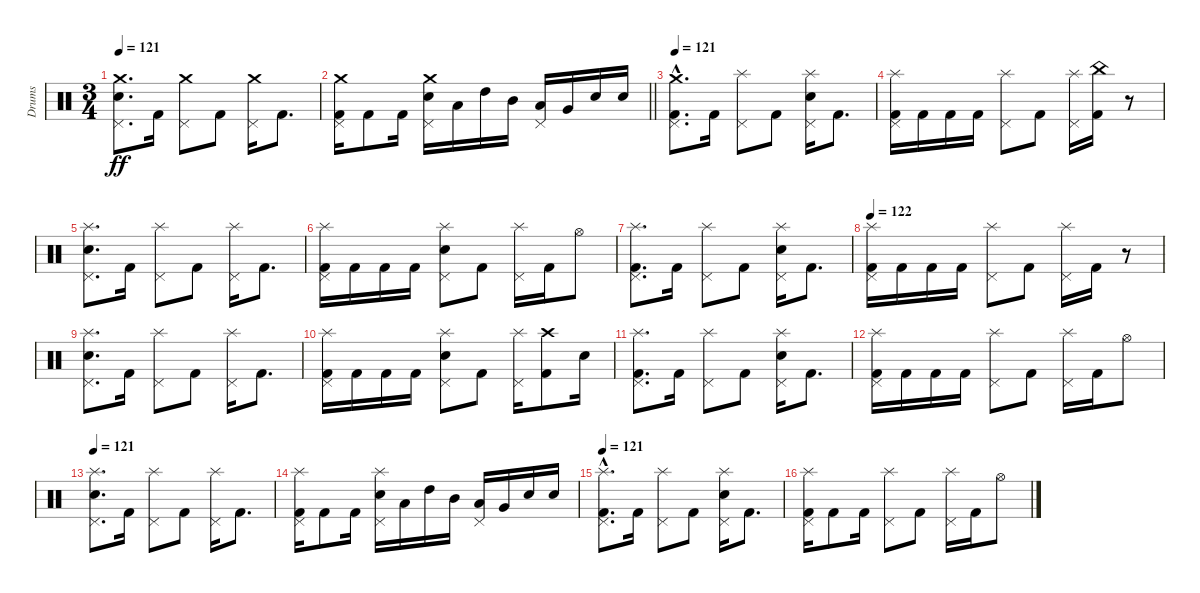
\track ("Drums" "Drums") {instrument percussion}
\staff {score}
\articulation defaults
\ts (3 4)
\tempo 121
\clef neutral
\ks c
("Crash medium (hit)" "Pedal Hi-Hat (hit)" "Electric Snare (hit)").8{d dy ff} "Kick (hit) 2".16 ("Crash medium (hit)" "Pedal Hi-Hat (hit)").8 "Kick (hit) 2".8 ("Crash medium (hit)" "Pedal Hi-Hat (hit)").16 "Kick (hit) 2".8{d} |
\barLineRight lightlight
("Crash medium (hit)" "Pedal Hi-Hat (hit)" "Kick (hit) 2").16 "Kick (hit) 2".8 "Kick (hit) 2".16 ("Crash medium (hit)" "Pedal Hi-Hat (hit)" "Electric Snare (hit)").16 "Low Tom (hit)".16 "High Tom (hit)".16 "Mid Tom (hit)".16 ("Pedal Hi-Hat (hit)" "Low Tom (hit)").16 "Very Low Tom (hit)".16 "Electric Snare (hit)".16 "Electric Snare (hit)".16 |
\section ("" "")
\tempo 121
("Crash medium (hit)"{hac} "Pedal Hi-Hat (hit)" "Kick (hit) 2").8{d} "Kick (hit) 2".16 ("Splash (hit)" "Pedal Hi-Hat (hit)").8 "Kick (hit) 2".8 ("Splash (hit)" "Pedal Hi-Hat (hit)" "Electric Snare (hit)").16 "Kick (hit) 2".8{d} |
("Splash (hit)" "Pedal Hi-Hat (hit)" "Kick (hit) 2").16 "Kick (hit) 2".16 "Kick (hit) 2".16 "Kick (hit) 2".16 ("Splash (hit)" "Pedal Hi-Hat (hit)").8 "Kick (hit) 2".8 ("Splash (hit)" "Pedal Hi-Hat (hit)").16 ("China (hit)" "Kick (hit) 2").16 r.8 |
("Splash (hit)" "Pedal Hi-Hat (hit)" "Electric Snare (hit)").8{d} "Kick (hit) 2".16 ("Splash (hit)" "Pedal Hi-Hat (hit)").8 "Kick (hit) 2".8 ("Splash (hit)" "Pedal Hi-Hat (hit)").16 "Kick (hit) 2".8{d} |
("Splash (hit)" "Pedal Hi-Hat (hit)" "Kick (hit) 2").16 "Kick (hit) 2".16 "Kick (hit) 2".16 "Kick (hit) 2".16 ("Splash (hit)" "Pedal Hi-Hat (hit)" "Electric Snare (hit)").8 "Kick (hit) 2".8 ("Splash (hit)" "Pedal Hi-Hat (hit)").16 "Kick (hit) 2".16 "Hi-Hat (open)".8 |
("Splash (hit)" "Pedal Hi-Hat (hit)" "Kick (hit) 2").8{d} "Kick (hit) 2".16 ("Splash (hit)" "Pedal Hi-Hat (hit)").8 "Kick (hit) 2".8 ("Splash (hit)" "Pedal Hi-Hat (hit)" "Electric Snare (hit)").16 "Kick (hit) 2".8{d} |
\tempo 122
("Splash (hit)" "Pedal Hi-Hat (hit)" "Kick (hit) 2").16 "Kick (hit) 2".16 "Kick (hit) 2".16 "Kick (hit) 2".16 ("Splash (hit)" "Pedal Hi-Hat (hit)").8 "Kick (hit) 2".8 ("Splash (hit)" "Pedal Hi-Hat (hit)").16 "Kick (hit) 2".16 r.8 |
("Splash (hit)" "Pedal Hi-Hat (hit)" "Electric Snare (hit)").8{d} "Kick (hit) 2".16 ("Splash (hit)" "Pedal Hi-Hat (hit)").8 "Kick (hit) 2".8 ("Splash (hit)" "Pedal Hi-Hat (hit)").16 "Kick (hit) 2".8{d} |
("Splash (hit)" "Pedal Hi-Hat (hit)" "Kick (hit) 2").16 "Kick (hit) 2".16 "Kick (hit) 2".16 "Kick (hit) 2".16 ("Splash (hit)" "Pedal Hi-Hat (hit)" "Electric Snare (hit)").8 "Kick (hit) 2".8 ("Splash (hit)" "Pedal Hi-Hat (hit)").16 ("Crash high (hit)" "Kick (hit) 2").8 "Electric Snare (hit)".16 |
("Splash (hit)" "Pedal Hi-Hat (hit)" "Kick (hit) 2").8{d} "Kick (hit) 2".16 ("Splash (hit)" "Pedal Hi-Hat (hit)").8 "Kick (hit) 2".8 ("Splash (hit)" "Pedal Hi-Hat (hit)" "Electric Snare (hit)").16 "Kick (hit) 2".8{d} |
("Splash (hit)" "Pedal Hi-Hat (hit)" "Kick (hit) 2").16 "Kick (hit) 2".16 "Kick (hit) 2".16 "Kick (hit) 2".16 ("Splash (hit)" "Pedal Hi-Hat (hit)").8 "Kick (hit) 2".8 ("Splash (hit)" "Pedal Hi-Hat (hit)").16 "Kick (hit) 2".16 "Hi-Hat (open)".8 |
\tempo 121
("Splash (hit)" "Pedal Hi-Hat (hit)" "Electric Snare (hit)").8{d} "Kick (hit) 2".16 ("Splash (hit)" "Pedal Hi-Hat (hit)").8 "Kick (hit) 2".8 ("Splash (hit)" "Pedal Hi-Hat (hit)").16 "Kick (hit) 2".8{d} |
("Splash (hit)" "Pedal Hi-Hat (hit)" "Kick (hit) 2").16 "Kick (hit) 2".8 "Kick (hit) 2".16 ("Splash (hit)" "Pedal Hi-Hat (hit)" "Electric Snare (hit)").16 "Low Tom (hit)".16 "High Tom (hit)".16 "Mid Tom (hit)".16 ("Pedal Hi-Hat (hit)" "Low Tom (hit)").16 "Very Low Tom (hit)".16 "Electric Snare (hit)".16 "Electric Snare (hit)".16 |
\tempo 121
("Splash (hit)"{hac} "Pedal Hi-Hat (hit)" "Kick (hit) 2").8{d} "Kick (hit) 2".16 ("Splash (hit)" "Pedal Hi-Hat (hit)").8 "Kick (hit) 2".8 ("Splash (hit)" "Pedal Hi-Hat (hit)" "Electric Snare (hit)").16 "Kick (hit) 2".8{d} |
("Splash (hit)" "Pedal Hi-Hat (hit)" "Kick (hit) 2").16 "Kick (hit) 2".8 "Kick (hit) 2".16 ("Splash (hit)" "Pedal Hi-Hat (hit)").8 "Kick (hit) 2".8 ("Splash (hit)" "Pedal Hi-Hat (hit)").16 "Kick (hit) 2".16 "Hi-Hat (open)".8
